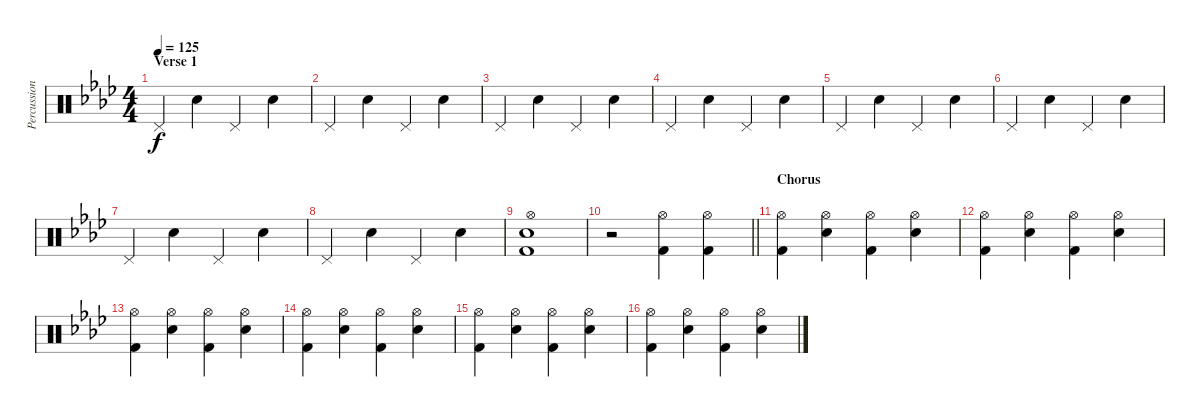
\track ("Percussion" "Percussion") {instrument percussion}
\staff {score}
\articulation defaults
\ts (4 4)
\section ("" "Verse 1")
\tempo 125
\clef neutral
\ks fminor "Pedal Hi-Hat (hit)".4{dy f} "Snare (hit) 2".4 "Pedal Hi-Hat (hit)".4 "Snare (hit) 2".4
|
"Pedal Hi-Hat (hit)".4 "Snare (hit) 2".4 "Pedal Hi-Hat (hit)".4 "Snare (hit) 2".4 |
"Pedal Hi-Hat (hit)".4 "Snare (hit) 2".4 "Pedal Hi-Hat (hit)".4 "Snare (hit) 2".4 |
"Pedal Hi-Hat (hit)".4 "Snare (hit) 2".4 "Pedal Hi-Hat (hit)".4 "Snare (hit) 2".4 |
"Pedal Hi-Hat (hit)".4 "Snare (hit) 2".4 "Pedal Hi-Hat (hit)".4 "Snare (hit) 2".4 |
"Pedal Hi-Hat (hit)".4 "Snare (hit) 2".4 "Pedal Hi-Hat (hit)".4 "Snare (hit) 2".4 |
"Pedal Hi-Hat (hit)".4 "Snare (hit) 2".4 "Pedal Hi-Hat (hit)".4 "Snare (hit) 2".4 |
"Pedal Hi-Hat (hit)".4 "Snare (hit) 2".4 "Pedal Hi-Hat (hit)".4 "Snare (hit) 2".4 |
("Hi-Hat (open)" "Snare (hit) 2" "Kick (hit) 2").1 |
\barLineRight lightlight
r.2 ("Hi-Hat (open)" "Kick (hit) 2").4 ("Hi-Hat (open)" "Kick (hit) 2").4 |
\section ("" "Chorus")
("Hi-Hat (open)" "Kick (hit) 2").4 ("Hi-Hat (open)" "Snare (hit) 2").4 ("Hi-Hat (open)" "Kick (hit) 2").4 ("Hi-Hat (open)" "Snare (hit) 2").4 |
("Hi-Hat (open)" "Kick (hit) 2").4 ("Hi-Hat (open)" "Snare (hit) 2").4 ("Hi-Hat (open)" "Kick (hit) 2").4 ("Hi-Hat (open)" "Snare (hit) 2").4 |
("Hi-Hat (open)" "Kick (hit) 2").4 ("Hi-Hat (open)" "Snare (hit) 2").4 ("Hi-Hat (open)" "Kick (hit) 2").4 ("Hi-Hat (open)" "Snare (hit) 2").4 |
("Hi-Hat (open)" "Kick (hit) 2").4 ("Hi-Hat (open)" "Snare (hit) 2").4 ("Hi-Hat (open)" "Kick (hit) 2").4 ("Hi-Hat (open)" "Snare (hit) 2").4 |
("Hi-Hat (open)" "Kick (hit) 2").4 ("Hi-Hat (open)" "Snare (hit) 2").4 ("Hi-Hat (open)" "Kick (hit) 2").4 ("Hi-Hat (open)" "Snare (hit) 2").4 |
("Hi-Hat (open)" "Kick (hit) 2").4 ("Hi-Hat (open)" "Snare (hit) 2").4 ("Hi-Hat (open)" "Kick (hit) 2").4 ("Hi-Hat (open)" "Snare (hit) 2").4
